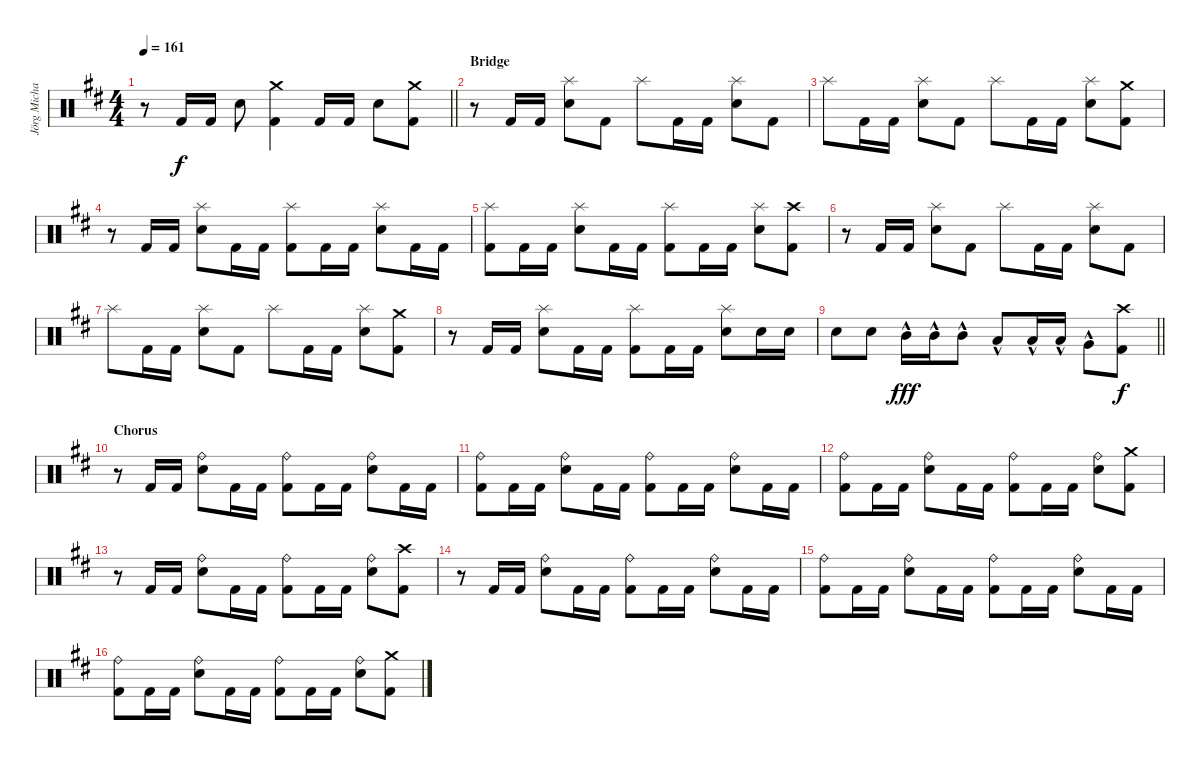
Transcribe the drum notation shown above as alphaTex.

\track ("Jörg Michael" "Jörg Micha") {instrument percussion}
\staff {score}
\articulation defaults
\ts (4 4)
\tempo 161
\clef neutral
\barLineRight lightlight
\ks bminor
r.8{dy f} "Kick (hit) 2".16 "Kick (hit) 2".16 "Snare (hit) 2".8 ("Crash medium (hit)" "Kick (hit) 2").4 "Kick (hit) 2".16 "Kick (hit) 2".16 "Snare (hit) 2".8 ("Crash medium (hit)" "Kick (hit) 2").8 |
\section ("" "Bridge")
r.8 "Kick (hit) 2".16 "Kick (hit) 2".16 ("Splash (hit)" "Snare (hit) 2").8 "Kick (hit) 2".8 "Splash (hit)".8 "Kick (hit) 2".16 "Kick (hit) 2".16 ("Splash (hit)" "Snare (hit) 2").8 "Kick (hit) 2".8 |
"Splash (hit)".8 "Kick (hit) 2".16 "Kick (hit) 2".16 ("Splash (hit)" "Snare (hit) 2").8 "Kick (hit) 2".8 "Splash (hit)".8 "Kick (hit) 2".16 "Kick (hit) 2".16 ("Splash (hit)" "Snare (hit) 2").8 ("Crash medium (hit)" "Kick (hit) 2").8 |
r.8 "Kick (hit) 2".16 "Kick (hit) 2".16 ("Splash (hit)" "Snare (hit) 2").8 "Kick (hit) 2".16 "Kick (hit) 2".16 ("Splash (hit)" "Kick (hit) 2").8 "Kick (hit) 2".16 "Kick (hit) 2".16 ("Splash (hit)" "Snare (hit) 2").8 "Kick (hit) 2".16 "Kick (hit) 2".16 |
("Splash (hit)" "Kick (hit) 2").8 "Kick (hit) 2".16 "Kick (hit) 2".16 ("Splash (hit)" "Snare (hit) 2").8 "Kick (hit) 2".16 "Kick (hit) 2".16 ("Splash (hit)" "Kick (hit) 2").8 "Kick (hit) 2".16 "Kick (hit) 2".16 ("Splash (hit)" "Snare (hit) 2").8 ("Crash high (hit)" "Kick (hit) 2").8 |
r.8 "Kick (hit) 2".16 "Kick (hit) 2".16 ("Splash (hit)" "Snare (hit) 2").8 "Kick (hit) 2".8 "Splash (hit)".8 "Kick (hit) 2".16 "Kick (hit) 2".16 ("Splash (hit)" "Snare (hit) 2").8 "Kick (hit) 2".8 |
"Splash (hit)".8 "Kick (hit) 2".16 "Kick (hit) 2".16 ("Splash (hit)" "Snare (hit) 2").8 "Kick (hit) 2".8 "Splash (hit)".8 "Kick (hit) 2".16 "Kick (hit) 2".16 ("Splash (hit)" "Snare (hit) 2").8 ("Crash medium (hit)" "Kick (hit) 2").8 |
r.8 "Kick (hit) 2".16 "Kick (hit) 2".16 ("Splash (hit)" "Snare (hit) 2").8 "Kick (hit) 2".16 "Kick (hit) 2".16 ("Splash (hit)" "Kick (hit) 2").8 "Kick (hit) 2".16 "Kick (hit) 2".16 ("Splash (hit)" "Snare (hit) 2").8 "Snare (hit) 2".16 "Snare (hit) 2".16 |
\barLineRight lightlight "Snare (hit) 2".8 "Snare (hit) 2".8 "Mid Tom (hit)"{hac}.16{dy fff} "Mid Tom (hit)"{hac}.16 "Mid Tom (hit)"{hac}.8 "Low Tom (hit)"{hac}.8 "Low Tom (hit)"{hac}.16 "Low Tom (hit)"{hac}.16 "Very Low Tom (hit)"{hac}.8
("Crash high (hit)" "Kick (hit) 2").8{dy f} |
\section ("" "Chorus")
r.8 "Kick (hit) 2".16 "Kick (hit) 2".16 ("Ride (bell)" "Snare (hit) 2").8 "Kick (hit) 2".16 "Kick (hit) 2".16 ("Ride (bell)" "Kick (hit) 2").8 "Kick (hit) 2".16 "Kick (hit) 2".16 ("Ride (bell)" "Snare (hit) 2").8 "Kick (hit) 2".16 "Kick (hit) 2".16 |
("Ride (bell)" "Kick (hit) 2").8 "Kick (hit) 2".16 "Kick (hit) 2".16 ("Ride (bell)" "Snare (hit) 2").8 "Kick (hit) 2".16 "Kick (hit) 2".16 ("Ride (bell)" "Kick (hit) 2").8 "Kick (hit) 2".16 "Kick (hit) 2".16 ("Ride (bell)" "Snare (hit) 2").8 "Kick (hit) 2".16 "Kick (hit) 2".16 |
("Ride (bell)" "Kick (hit) 2").8 "Kick (hit) 2".16 "Kick (hit) 2".16 ("Ride (bell)" "Snare (hit) 2").8 "Kick (hit) 2".16 "Kick (hit) 2".16 ("Ride (bell)" "Kick (hit) 2").8 "Kick (hit) 2".16 "Kick (hit) 2".16 ("Ride (bell)" "Snare (hit) 2").8 ("Crash medium (hit)" "Kick (hit) 2").8 |
r.8 "Kick (hit) 2".16 "Kick (hit) 2".16 ("Ride (bell)" "Snare (hit) 2").8 "Kick (hit) 2".16 "Kick (hit) 2".16 ("Ride (bell)" "Kick (hit) 2").8 "Kick (hit) 2".16 "Kick (hit) 2".16 ("Ride (bell)" "Snare (hit) 2").8 ("Crash high (hit)" "Kick (hit) 2").8 |
r.8 "Kick (hit) 2".16 "Kick (hit) 2".16 ("Ride (bell)" "Snare (hit) 2").8 "Kick (hit) 2".16 "Kick (hit) 2".16 ("Ride (bell)" "Kick (hit) 2").8 "Kick (hit) 2".16 "Kick (hit) 2".16 ("Ride (bell)" "Snare (hit) 2").8 "Kick (hit) 2".16 "Kick (hit) 2".16 |
("Ride (bell)" "Kick (hit) 2").8 "Kick (hit) 2".16 "Kick (hit) 2".16 ("Ride (bell)" "Snare (hit) 2").8 "Kick (hit) 2".16 "Kick (hit) 2".16 ("Ride (bell)" "Kick (hit) 2").8 "Kick (hit) 2".16 "Kick (hit) 2".16 ("Ride (bell)" "Snare (hit) 2").8 "Kick (hit) 2".16 "Kick (hit) 2".16 |
("Ride (bell)" "Kick (hit) 2").8 "Kick (hit) 2".16 "Kick (hit) 2".16 ("Ride (bell)" "Snare (hit) 2").8 "Kick (hit) 2".16 "Kick (hit) 2".16 ("Ride (bell)" "Kick (hit) 2").8 "Kick (hit) 2".16 "Kick (hit) 2".16 ("Ride (bell)" "Snare (hit) 2").8 ("Crash medium (hit)" "Kick (hit) 2").8
